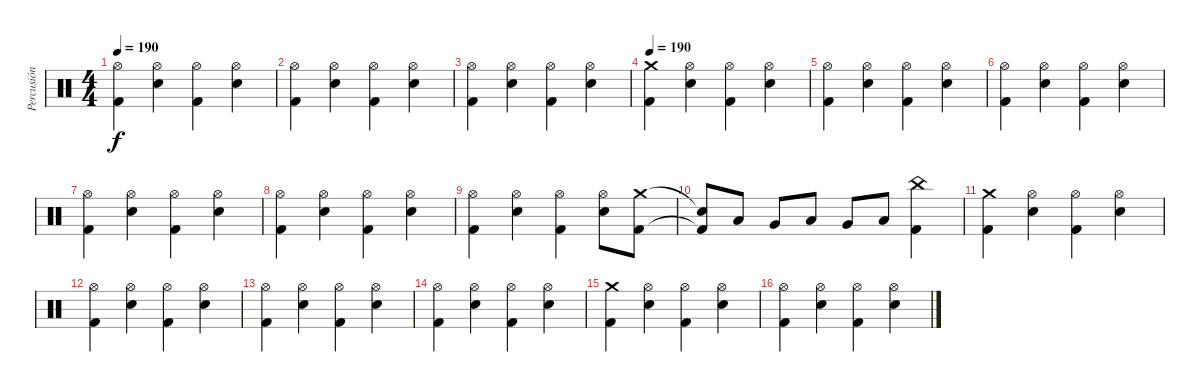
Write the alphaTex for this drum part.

\track ("Percusión" "Percusión") {instrument percussion}
\staff {score}
\articulation defaults
\ts (4 4)
\tempo 190
\clef neutral
\ks c
("Hi-Hat (open)" "Kick (hit) 2").4{dy f} ("Hi-Hat (open)" "Electric Snare (hit)").4 ("Hi-Hat (open)" "Kick (hit) 2").4 ("Hi-Hat (open)" "Electric Snare (hit)").4 |
("Hi-Hat (open)" "Kick (hit) 2").4 ("Hi-Hat (open)" "Electric Snare (hit)").4 ("Hi-Hat (open)" "Kick (hit) 2").4 ("Hi-Hat (open)" "Electric Snare (hit)").4 |
("Hi-Hat (open)" "Kick (hit) 2").4 ("Hi-Hat (open)" "Electric Snare (hit)").4 ("Hi-Hat (open)" "Kick (hit) 2").4 ("Hi-Hat (open)" "Electric Snare (hit)").4 |
\tempo 190
("Crash medium (hit)" "Kick (hit) 2").4 ("Hi-Hat (open)" "Electric Snare (hit)").4 ("Hi-Hat (open)" "Kick (hit) 2").4 ("Hi-Hat (open)" "Electric Snare (hit)").4 |
("Hi-Hat (open)" "Kick (hit) 2").4 ("Hi-Hat (open)" "Electric Snare (hit)").4 ("Hi-Hat (open)" "Kick (hit) 2").4 ("Hi-Hat (open)" "Electric Snare (hit)").4 |
("Hi-Hat (open)" "Kick (hit) 2").4 ("Hi-Hat (open)" "Electric Snare (hit)").4 ("Hi-Hat (open)" "Kick (hit) 2").4 ("Hi-Hat (open)" "Electric Snare (hit)").4 |
("Hi-Hat (open)" "Kick (hit) 2").4 ("Hi-Hat (open)" "Electric Snare (hit)").4 ("Hi-Hat (open)" "Kick (hit) 2").4 ("Hi-Hat (open)" "Electric Snare (hit)").4 |
("Hi-Hat (open)" "Kick (hit) 2").4 ("Hi-Hat (open)" "Electric Snare (hit)").4 ("Hi-Hat (open)" "Kick (hit) 2").4 ("Hi-Hat (open)" "Electric Snare (hit)").4 |
("Hi-Hat (open)" "Kick (hit) 2").4 ("Hi-Hat (open)" "Electric Snare (hit)").4 ("Hi-Hat (open)" "Kick (hit) 2").4 ("Hi-Hat (open)" "Electric Snare (hit)").8 ("Crash medium (hit)" "Kick (hit) 2").8 |
("Snare (hit)"{t} "Kick (hit) 2"{t}).8 "Low Tom (hit)".8 "Very Low Tom (hit)".8 "Low Tom (hit)".8 "Very Low Tom (hit)".8 "Low Floor Tom (hit)".8 ("China (hit)" "Kick (hit) 2").4 |
("Crash medium (hit)" "Kick (hit) 2").4 ("Hi-Hat (open)" "Electric Snare (hit)").4 ("Hi-Hat (open)" "Kick (hit) 2").4 ("Hi-Hat (open)" "Electric Snare (hit)").4 |
("Hi-Hat (open)" "Kick (hit) 2").4 ("Hi-Hat (open)" "Electric Snare (hit)").4 ("Hi-Hat (open)" "Kick (hit) 2").4 ("Hi-Hat (open)" "Electric Snare (hit)").4 |
("Hi-Hat (open)" "Kick (hit) 2").4 ("Hi-Hat (open)" "Electric Snare (hit)").4 ("Hi-Hat (open)" "Kick (hit) 2").4 ("Hi-Hat (open)" "Electric Snare (hit)").4 |
("Hi-Hat (open)" "Kick (hit) 2").4 ("Hi-Hat (open)" "Electric Snare (hit)").4 ("Hi-Hat (open)" "Kick (hit) 2").4 ("Hi-Hat (open)" "Electric Snare (hit)").4 |
("Crash medium (hit)" "Kick (hit) 2").4 ("Hi-Hat (open)" "Electric Snare (hit)").4 ("Hi-Hat (open)" "Kick (hit) 2").4 ("Hi-Hat (open)" "Electric Snare (hit)").4 |
("Hi-Hat (open)" "Kick (hit) 2").4 ("Hi-Hat (open)" "Electric Snare (hit)").4 ("Hi-Hat (open)" "Kick (hit) 2").4 ("Hi-Hat (open)" "Electric Snare (hit)").4
